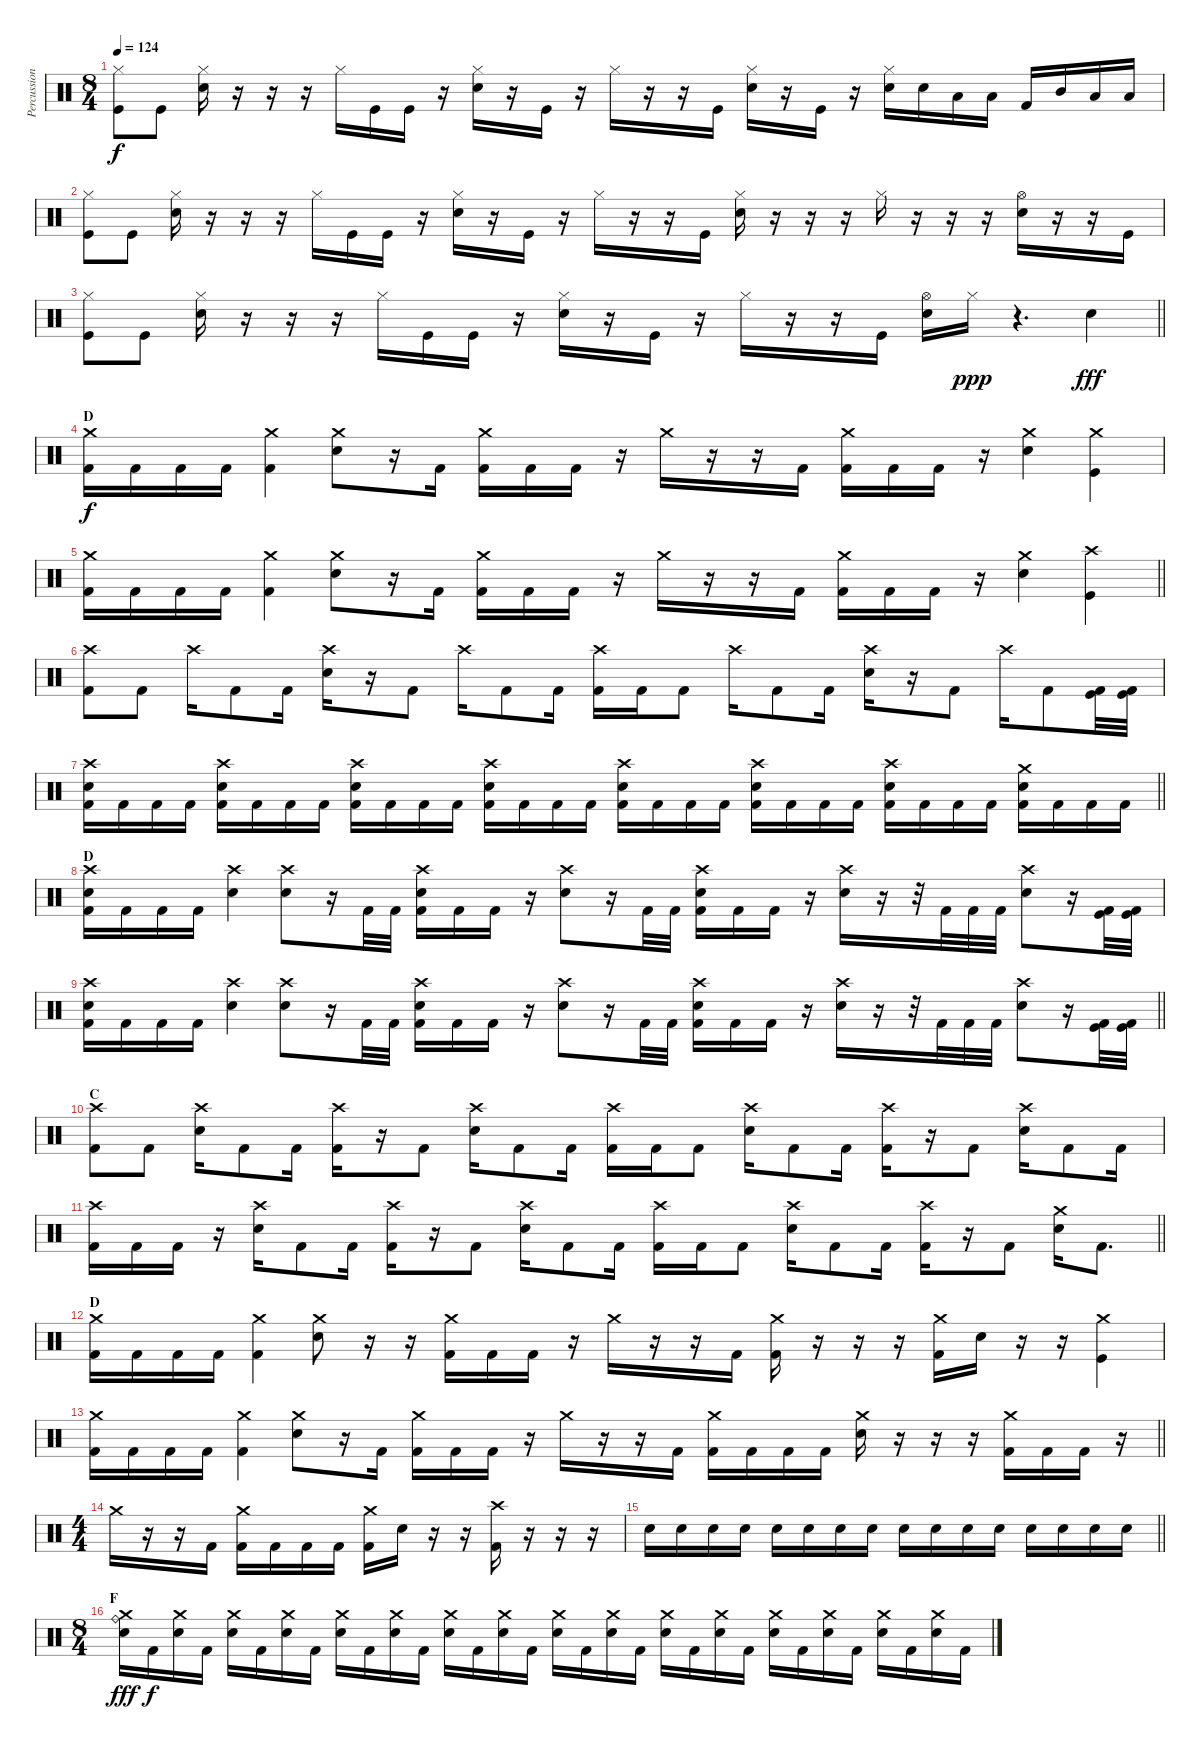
\track ("Percussions" "Percussion") {instrument percussion}
\staff {score}
\articulation defaults
\ts (8 4)
\tempo 124
\clef neutral
\ks c
("Hi-Hat (closed)" "Kick (hit)").8{dy f} "Kick (hit)".8 ("Hi-Hat (closed)" "Snare (hit) 2").16 r.16 r.16 r.16 "Hi-Hat (closed)".16 "Kick (hit)".16 "Kick (hit)".16 r.16 ("Hi-Hat (closed)" "Snare (hit) 2").16 r.16 "Kick (hit)".16 r.16 "Hi-Hat (closed)".16 r.16 r.16 "Kick (hit)".16 ("Hi-Hat (closed)" "Snare (hit) 2").16 r.16 "Kick (hit)".16 r.16 ("Hi-Hat (closed)" "Snare (hit) 2").16 "Snare (hit) 2".16 "Low Tom (hit)".16 "Low Floor Tom (hit)".16 "Kick (hit) 2".16 "Mid Tom (hit)".16 "Low Tom (hit)".16 "Low Floor Tom (hit)".16 |
("Hi-Hat (closed)" "Kick (hit)").8 "Kick (hit)".8 ("Hi-Hat (closed)" "Snare (hit) 2").16 r.16 r.16 r.16 "Hi-Hat (closed)".16 "Kick (hit)".16 "Kick (hit)".16 r.16 ("Hi-Hat (closed)" "Snare (hit) 2").16 r.16 "Kick (hit)".16 r.16 "Hi-Hat (closed)".16 r.16 r.16 "Kick (hit)".16 ("Hi-Hat (closed)" "Snare (hit) 2").16 r.16 r.16 r.16 "Hi-Hat (closed)".16 r.16 r.16 r.16 ("Hi-Hat (open)" "Snare (hit) 2").16 r.16 r.16 "Kick (hit)".16 |
\barLineRight lightlight
("Hi-Hat (closed)" "Kick (hit)").8 "Kick (hit)".8 ("Hi-Hat (closed)" "Snare (hit) 2").16 r.16 r.16 r.16 "Hi-Hat (closed)".16 "Kick (hit)".16 "Kick (hit)".16 r.16 ("Hi-Hat (closed)" "Snare (hit) 2").16 r.16 "Kick (hit)".16 r.16 "Hi-Hat (closed)".16 r.16 r.16 "Kick (hit)".16 ("Hi-Hat (open)" "Snare (hit) 2").16 "Hi-Hat (closed)".16{dy ppp} r.4{d} "Snare (hit) 2".4{dy fff} |
\section ("" "D")
("Crash medium (hit)" "Kick (hit) 2").16{dy f} "Kick (hit) 2".16 "Kick (hit) 2".16 "Kick (hit) 2".16 ("Crash medium (hit)" "Kick (hit) 2").4 ("Crash medium (hit)" "Snare (hit) 2").8 r.16 "Kick (hit) 2".16 ("Crash medium (hit)" "Kick (hit) 2").16 "Kick (hit) 2".16 "Kick (hit) 2".16 r.16 "Crash medium (hit)".16 r.16 r.16 "Kick (hit) 2".16 ("Crash medium (hit)" "Kick (hit) 2").16 "Kick (hit) 2".16 "Kick (hit) 2".16 r.16 ("Crash medium (hit)" "Snare (hit) 2").4 ("Crash medium (hit)" "Kick (hit)").4 |
\barLineRight lightlight
("Crash medium (hit)" "Kick (hit) 2").16 "Kick (hit) 2".16 "Kick (hit) 2".16 "Kick (hit) 2".16 ("Crash medium (hit)" "Kick (hit) 2").4 ("Crash medium (hit)" "Snare (hit) 2").8 r.16 "Kick (hit) 2".16 ("Crash medium (hit)" "Kick (hit) 2").16 "Kick (hit) 2".16 "Kick (hit) 2".16 r.16 "Crash medium (hit)".16 r.16 r.16 "Kick (hit) 2".16 ("Crash medium (hit)" "Kick (hit) 2").16 "Kick (hit) 2".16 "Kick (hit) 2".16 r.16 ("Crash medium (hit)" "Snare (hit) 2").4 ("Crash high (hit)" "Kick (hit)").4 |
("Crash high (hit)" "Kick (hit) 2").8 "Kick (hit) 2".8 "Crash high (hit)".16 "Kick (hit) 2".8 "Kick (hit) 2".16 ("Crash high (hit)" "Snare (hit) 2").16 r.16 "Kick (hit) 2".8 "Crash high (hit)".16 "Kick (hit) 2".8 "Kick (hit) 2".16 ("Crash high (hit)" "Kick (hit) 2").16 "Kick (hit) 2".16 "Kick (hit) 2".8 "Crash high (hit)".16 "Kick (hit) 2".8 "Kick (hit) 2".16 ("Crash high (hit)" "Snare (hit) 2").16 r.16 "Kick (hit) 2".8 "Crash high (hit)".16 "Kick (hit) 2".8 ("Kick (hit)" "Kick (hit) 2").32 ("Kick (hit)" "Kick (hit) 2").32 |
\barLineRight lightlight
("Crash high (hit)" "Snare (hit) 2" "Kick (hit) 2").16 "Kick (hit) 2".16 "Kick (hit) 2".16 "Kick (hit) 2".16 ("Crash high (hit)" "Snare (hit) 2" "Kick (hit) 2").16 "Kick (hit) 2".16 "Kick (hit) 2".16 "Kick (hit) 2".16 ("Crash high (hit)" "Snare (hit) 2" "Kick (hit) 2").16 "Kick (hit) 2".16 "Kick (hit) 2".16 "Kick (hit) 2".16 ("Crash high (hit)" "Snare (hit) 2" "Kick (hit) 2").16 "Kick (hit) 2".16 "Kick (hit) 2".16 "Kick (hit) 2".16 ("Crash high (hit)" "Snare (hit) 2" "Kick (hit) 2").16 "Kick (hit) 2".16 "Kick (hit) 2".16 "Kick (hit) 2".16 ("Crash high (hit)" "Snare (hit) 2" "Kick (hit) 2").16 "Kick (hit) 2".16 "Kick (hit) 2".16 "Kick (hit) 2".16 ("Crash high (hit)" "Snare (hit) 2" "Kick (hit) 2").16 "Kick (hit) 2".16 "Kick (hit) 2".16 "Kick (hit) 2".16 ("Crash medium (hit)" "Snare (hit) 2" "Kick (hit) 2").16 "Kick (hit) 2".16 "Kick (hit) 2".16 "Kick (hit) 2".16 |
\section ("" "D")
("Crash high (hit)" "Snare (hit) 2" "Kick (hit) 2").16 "Kick (hit) 2".16 "Kick (hit) 2".16 "Kick (hit) 2".16 ("Crash high (hit)" "Snare (hit) 2").4 ("Crash high (hit)" "Snare (hit) 2").8 r.16 "Kick (hit) 2".32 "Kick (hit) 2".32 ("Crash high (hit)" "Snare (hit) 2" "Kick (hit) 2").16 "Kick (hit) 2".16 "Kick (hit) 2".16 r.16 ("Crash high (hit)" "Snare (hit) 2").8 r.16 "Kick (hit) 2".32 "Kick (hit) 2".32 ("Crash high (hit)" "Snare (hit) 2" "Kick (hit) 2").16 "Kick (hit) 2".16 "Kick (hit) 2".16 r.16 ("Crash high (hit)" "Snare (hit) 2").16 r.16 r.32 "Kick (hit) 2".32 "Kick (hit) 2".32 "Kick (hit) 2".32 ("Crash high (hit)" "Snare (hit) 2").8 r.16 ("Kick (hit)" "Kick (hit) 2").32 ("Kick (hit)" "Kick (hit) 2").32 |
\barLineRight lightlight
("Crash high (hit)" "Snare (hit) 2" "Kick (hit) 2").16 "Kick (hit) 2".16 "Kick (hit) 2".16 "Kick (hit) 2".16 ("Crash high (hit)" "Snare (hit) 2").4 ("Crash high (hit)" "Snare (hit) 2").8 r.16 "Kick (hit) 2".32 "Kick (hit) 2".32 ("Crash high (hit)" "Snare (hit) 2" "Kick (hit) 2").16 "Kick (hit) 2".16 "Kick (hit) 2".16 r.16 ("Crash high (hit)" "Snare (hit) 2").8 r.16 "Kick (hit) 2".32 "Kick (hit) 2".32 ("Crash high (hit)" "Snare (hit) 2" "Kick (hit) 2").16 "Kick (hit) 2".16 "Kick (hit) 2".16 r.16 ("Crash high (hit)" "Snare (hit) 2").16 r.16 r.32 "Kick (hit) 2".32 "Kick (hit) 2".32 "Kick (hit) 2".32 ("Crash high (hit)" "Snare (hit) 2").8 r.16 ("Kick (hit)" "Kick (hit) 2").32 ("Kick (hit)" "Kick (hit) 2").32 |
\section ("" "C")
("Crash high (hit)" "Kick (hit) 2").8 "Kick (hit) 2".8 ("Crash high (hit)" "Snare (hit) 2").16 "Kick (hit) 2".8 "Kick (hit) 2".16 ("Crash high (hit)" "Kick (hit) 2").16 r.16 "Kick (hit) 2".8 ("Crash high (hit)" "Snare (hit) 2").16 "Kick (hit) 2".8 "Kick (hit) 2".16 ("Crash high (hit)" "Kick (hit) 2").16 "Kick (hit) 2".16 "Kick (hit) 2".8 ("Crash high (hit)" "Snare (hit) 2").16 "Kick (hit) 2".8 "Kick (hit) 2".16 ("Crash high (hit)" "Kick (hit) 2").16 r.16 "Kick (hit) 2".8 ("Crash high (hit)" "Snare (hit) 2").16 "Kick (hit) 2".8 "Kick (hit) 2".16 |
\barLineRight lightlight
("Crash high (hit)" "Kick (hit) 2").16 "Kick (hit) 2".16 "Kick (hit) 2".16 r.16 ("Crash high (hit)" "Snare (hit) 2").16 "Kick (hit) 2".8 "Kick (hit) 2".16 ("Crash high (hit)" "Kick (hit) 2").16 r.16 "Kick (hit) 2".8 ("Crash high (hit)" "Snare (hit) 2").16 "Kick (hit) 2".8 "Kick (hit) 2".16 ("Crash high (hit)" "Kick (hit) 2").16 "Kick (hit) 2".16 "Kick (hit) 2".8 ("Crash high (hit)" "Snare (hit) 2").16 "Kick (hit) 2".8 "Kick (hit) 2".16 ("Crash high (hit)" "Kick (hit) 2").16 r.16 "Kick (hit) 2".8 ("Crash medium (hit)" "Snare (hit) 2").16 "Kick (hit) 2".8{d} |
\section ("" "D")
("Crash medium (hit)" "Kick (hit) 2").16 "Kick (hit) 2".16 "Kick (hit) 2".16 "Kick (hit) 2".16 ("Crash medium (hit)" "Kick (hit) 2").4 ("Crash medium (hit)" "Snare (hit) 2").8 r.16 r.16 ("Crash medium (hit)" "Kick (hit) 2").16 "Kick (hit) 2".16 "Kick (hit) 2".16 r.16 "Crash medium (hit)".16 r.16 r.16 "Kick (hit) 2".16 ("Crash medium (hit)" "Kick (hit) 2").16 r.16 r.16 r.16 ("Crash medium (hit)" "Kick (hit) 2").16 "Snare (hit) 2".16 r.16 r.16 ("Crash medium (hit)" "Kick (hit)").4 |
\barLineRight lightlight
("Crash medium (hit)" "Kick (hit) 2").16 "Kick (hit) 2".16 "Kick (hit) 2".16 "Kick (hit) 2".16 ("Crash medium (hit)" "Kick (hit) 2").4 ("Crash medium (hit)" "Snare (hit) 2").8 r.16 "Kick (hit) 2".16 ("Crash medium (hit)" "Kick (hit) 2").16 "Kick (hit) 2".16 "Kick (hit) 2".16 r.16 "Crash medium (hit)".16 r.16 r.16 "Kick (hit) 2".16 ("Crash medium (hit)" "Kick (hit) 2").16 "Kick (hit) 2".16 "Kick (hit) 2".16 "Kick (hit) 2".16 ("Crash medium (hit)" "Snare (hit) 2").16 r.16 r.16 r.16 ("Crash medium (hit)" "Kick (hit) 2").16 "Kick (hit) 2".16 "Kick (hit) 2".16 r.16 |
\ts (4 4)
"Crash medium (hit)".16 r.16 r.16 "Kick (hit) 2".16 ("Crash medium (hit)" "Kick (hit) 2").16 "Kick (hit) 2".16 "Kick (hit) 2".16 "Kick (hit) 2".16 ("Crash medium (hit)" "Kick (hit) 2").16 "Snare (hit) 2".16 r.16 r.16 ("Crash high (hit)" "Kick (hit) 2").16 r.16 r.16 r.16 |
\barLineRight lightlight "Snare (hit) 2".16 "Snare (hit) 2".16 "Snare (hit) 2".16 "Snare (hit) 2".16 "Snare (hit) 2".16 "Snare (hit) 2".16 "Snare (hit) 2".16 "Snare (hit) 2".16 "Snare (hit) 2".16 "Snare (hit) 2".16 "Snare (hit) 2".16 "Snare (hit) 2".16 "Snare (hit) 2".16 "Snare (hit) 2".16 "Snare (hit) 2".16 "Snare (hit) 2".16
|
\ts (8 4)
\section ("" "F")
("Crash medium (hit)" "Ride (bell)" "Snare (hit) 2").16{dy fff} "Kick (hit) 2".16{dy f} ("Crash medium (hit)" "Snare (hit) 2").16 "Kick (hit) 2".16 ("Crash medium (hit)" "Snare (hit) 2").16 "Kick (hit) 2".16 ("Crash medium (hit)" "Snare (hit) 2").16 "Kick (hit) 2".16 ("Crash medium (hit)" "Snare (hit) 2").16 "Kick (hit) 2".16 ("Crash medium (hit)" "Snare (hit) 2").16 "Kick (hit) 2".16 ("Crash medium (hit)" "Snare (hit) 2").16 "Kick (hit) 2".16 ("Crash medium (hit)" "Snare (hit) 2").16 "Kick (hit) 2".16 ("Crash medium (hit)" "Snare (hit) 2").16 "Kick (hit) 2".16 ("Crash medium (hit)" "Snare (hit) 2").16 "Kick (hit) 2".16 ("Crash medium (hit)" "Snare (hit) 2").16 "Kick (hit) 2".16 ("Crash medium (hit)" "Snare (hit) 2").16 "Kick (hit) 2".16 ("Crash medium (hit)" "Snare (hit) 2").16 "Kick (hit) 2".16 ("Crash medium (hit)" "Snare (hit) 2").16 "Kick (hit) 2".16 ("Crash medium (hit)" "Snare (hit) 2").16 "Kick (hit) 2".16 ("Crash medium (hit)" "Snare (hit) 2").16 "Kick (hit) 2".16
